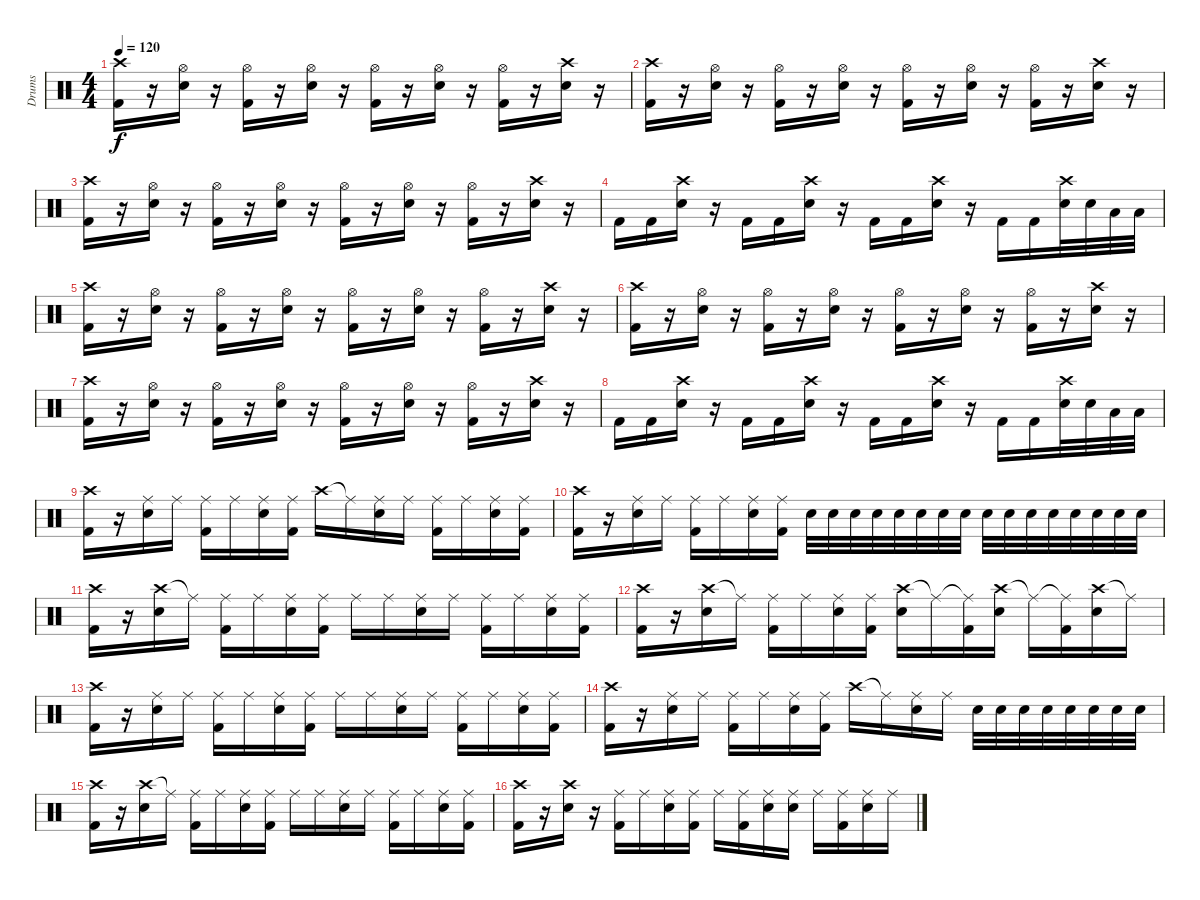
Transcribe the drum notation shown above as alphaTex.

\track ("Drums" "Drums") {instrument percussion}
\staff {score}
\articulation defaults
\ts (4 4)
\tempo 120
\clef neutral
\ks c
("Crash high (hit)" "Kick (hit) 2").16{dy f} r.16 ("Hi-Hat (open)" "Electric Snare (hit)").16 r.16 ("Hi-Hat (open)" "Kick (hit) 2").16 r.16 ("Hi-Hat (open)" "Electric Snare (hit)").16 r.16 ("Hi-Hat (open)" "Kick (hit) 2").16 r.16 ("Hi-Hat (open)" "Electric Snare (hit)").16 r.16 ("Hi-Hat (open)" "Kick (hit) 2").16 r.16 ("Crash high (hit)" "Electric Snare (hit)").16 r.16 |
("Crash high (hit)" "Kick (hit) 2").16 r.16 ("Hi-Hat (open)" "Electric Snare (hit)").16 r.16 ("Hi-Hat (open)" "Kick (hit) 2").16 r.16 ("Hi-Hat (open)" "Electric Snare (hit)").16 r.16 ("Hi-Hat (open)" "Kick (hit) 2").16 r.16 ("Hi-Hat (open)" "Electric Snare (hit)").16 r.16 ("Hi-Hat (open)" "Kick (hit) 2").16 r.16 ("Crash high (hit)" "Electric Snare (hit)").16 r.16 |
("Crash high (hit)" "Kick (hit) 2").16 r.16 ("Hi-Hat (open)" "Electric Snare (hit)").16 r.16 ("Hi-Hat (open)" "Kick (hit) 2").16 r.16 ("Hi-Hat (open)" "Electric Snare (hit)").16 r.16 ("Hi-Hat (open)" "Kick (hit) 2").16 r.16 ("Hi-Hat (open)" "Electric Snare (hit)").16 r.16 ("Hi-Hat (open)" "Kick (hit) 2").16 r.16 ("Crash high (hit)" "Electric Snare (hit)").16 r.16 |
"Kick (hit) 2".16 "Kick (hit) 2".16 ("Crash high (hit)" "Electric Snare (hit)").16 r.16 "Kick (hit) 2".16 "Kick (hit) 2".16 ("Crash high (hit)" "Electric Snare (hit)").16 r.16 "Kick (hit) 2".16 "Kick (hit) 2".16 ("Crash high (hit)" "Electric Snare (hit)").16 r.16 "Kick (hit) 2".16 "Kick (hit) 2".16 ("Crash high (hit)" "Electric Snare (hit)").32 "Electric Snare (hit)".32 "Low Tom (hit)".32 "Low Tom (hit)".32 |
("Crash high (hit)" "Kick (hit) 2").16 r.16 ("Hi-Hat (open)" "Electric Snare (hit)").16 r.16 ("Hi-Hat (open)" "Kick (hit) 2").16 r.16 ("Hi-Hat (open)" "Electric Snare (hit)").16 r.16 ("Hi-Hat (open)" "Kick (hit) 2").16 r.16 ("Hi-Hat (open)" "Electric Snare (hit)").16 r.16 ("Hi-Hat (open)" "Kick (hit) 2").16 r.16 ("Crash high (hit)" "Electric Snare (hit)").16 r.16 |
("Crash high (hit)" "Kick (hit) 2").16 r.16 ("Hi-Hat (open)" "Electric Snare (hit)").16 r.16 ("Hi-Hat (open)" "Kick (hit) 2").16 r.16 ("Hi-Hat (open)" "Electric Snare (hit)").16 r.16 ("Hi-Hat (open)" "Kick (hit) 2").16 r.16 ("Hi-Hat (open)" "Electric Snare (hit)").16 r.16 ("Hi-Hat (open)" "Kick (hit) 2").16 r.16 ("Crash high (hit)" "Electric Snare (hit)").16 r.16 |
("Crash high (hit)" "Kick (hit) 2").16 r.16 ("Hi-Hat (open)" "Electric Snare (hit)").16 r.16 ("Hi-Hat (open)" "Kick (hit) 2").16 r.16 ("Hi-Hat (open)" "Electric Snare (hit)").16 r.16 ("Hi-Hat (open)" "Kick (hit) 2").16 r.16 ("Hi-Hat (open)" "Electric Snare (hit)").16 r.16 ("Hi-Hat (open)" "Kick (hit) 2").16 r.16 ("Crash high (hit)" "Electric Snare (hit)").16 r.16 |
"Kick (hit) 2".16 "Kick (hit) 2".16 ("Crash high (hit)" "Electric Snare (hit)").16 r.16 "Kick (hit) 2".16 "Kick (hit) 2".16 ("Crash high (hit)" "Electric Snare (hit)").16 r.16 "Kick (hit) 2".16 "Kick (hit) 2".16 ("Crash high (hit)" "Electric Snare (hit)").16 r.16 "Kick (hit) 2".16 "Kick (hit) 2".16 ("Crash high (hit)" "Electric Snare (hit)").32 "Electric Snare (hit)".32 "Low Tom (hit)".32 "Low Tom (hit)".32 |
("Crash high (hit)" "Kick (hit) 2").16 r.16 ("Ride (middle)" "Electric Snare (hit)").16 "Ride (middle)".16 ("Ride (middle)" "Kick (hit) 2").16 "Ride (middle)".16 ("Ride (middle)" "Electric Snare (hit)").16 ("Ride (middle)" "Kick (hit) 2").16 "Crash high (hit)".16 "Ride (middle)"{t}.16 ("Ride (middle)" "Electric Snare (hit)").16 "Ride (middle)".16 ("Ride (middle)" "Kick (hit) 2").16 "Ride (middle)".16 ("Ride (middle)" "Electric Snare (hit)").16 ("Ride (middle)" "Kick (hit) 2").16 |
("Crash high (hit)" "Kick (hit) 2").16 r.16 ("Ride (middle)" "Electric Snare (hit)").16 "Ride (middle)".16 ("Ride (middle)" "Kick (hit) 2").16 "Ride (middle)".16 ("Ride (middle)" "Electric Snare (hit)").16 ("Ride (middle)" "Kick (hit) 2").16 "Electric Snare (hit)".32 "Electric Snare (hit)".32 "Electric Snare (hit)".32 "Electric Snare (hit)".32 "Electric Snare (hit)".32 "Electric Snare (hit)".32 "Electric Snare (hit)".32 "Electric Snare (hit)".32 "Electric Snare (hit)".32 "Electric Snare (hit)".32 "Electric Snare (hit)".32 "Electric Snare (hit)".32 "Electric Snare (hit)".32 "Electric Snare (hit)".32 "Electric Snare (hit)".32 "Electric Snare (hit)".32 |
("Crash high (hit)" "Kick (hit) 2").16 r.16 ("Crash high (hit)" "Electric Snare (hit)").16 "Ride (middle)"{t}.16 ("Ride (middle)" "Kick (hit) 2").16 "Ride (middle)".16 ("Ride (middle)" "Electric Snare (hit)").16 ("Ride (middle)" "Kick (hit) 2").16 "Ride (middle)".16 "Ride (middle)".16 ("Ride (middle)" "Electric Snare (hit)").16 "Ride (middle)".16 ("Ride (middle)" "Kick (hit) 2").16 "Ride (middle)".16 ("Ride (middle)" "Electric Snare (hit)").16 ("Ride (middle)" "Kick (hit) 2").16 |
("Crash high (hit)" "Kick (hit) 2").16 r.16 ("Crash high (hit)" "Electric Snare (hit)").16 "Ride (middle)"{t}.16 ("Ride (middle)" "Kick (hit) 2").16 "Ride (middle)".16 ("Ride (middle)" "Electric Snare (hit)").16 ("Ride (middle)" "Kick (hit) 2").16 ("Crash high (hit)" "Electric Snare (hit)").16 "Ride (middle)"{t}.16 ("Ride (middle)"{t} "Kick (hit) 2").16 ("Crash high (hit)" "Electric Snare (hit)").16 "Ride (middle)"{t}.16 ("Ride (middle)"{t} "Kick (hit) 2").16 ("Crash high (hit)" "Electric Snare (hit)").16 "Ride (middle)"{t}.16 |
("Crash high (hit)" "Kick (hit) 2").16 r.16 ("Ride (middle)" "Electric Snare (hit)").16 "Ride (middle)".16 ("Ride (middle)" "Kick (hit) 2").16 "Ride (middle)".16 ("Ride (middle)" "Electric Snare (hit)").16 ("Ride (middle)" "Kick (hit) 2").16 "Ride (middle)".16 "Ride (middle)".16 ("Ride (middle)" "Electric Snare (hit)").16 "Ride (middle)".16 ("Ride (middle)" "Kick (hit) 2").16 "Ride (middle)".16 ("Ride (middle)" "Electric Snare (hit)").16 ("Ride (middle)" "Kick (hit) 2").16 |
("Crash high (hit)" "Kick (hit) 2").16 r.16 ("Ride (middle)" "Electric Snare (hit)").16 "Ride (middle)".16 ("Ride (middle)" "Kick (hit) 2").16 "Ride (middle)".16 ("Ride (middle)" "Electric Snare (hit)").16 ("Ride (middle)" "Kick (hit) 2").16 "Crash high (hit)".16 "Ride (middle)"{t}.16 ("Ride (middle)" "Electric Snare (hit)").16 "Ride (middle)".16 "Electric Snare (hit)".32 "Electric Snare (hit)".32 "Electric Snare (hit)".32 "Electric Snare (hit)".32 "Electric Snare (hit)".32 "Electric Snare (hit)".32 "Electric Snare (hit)".32 "Electric Snare (hit)".32 |
("Crash high (hit)" "Kick (hit) 2").16 r.16 ("Crash high (hit)" "Electric Snare (hit)").16 "Ride (middle)"{t}.16 ("Ride (middle)" "Kick (hit) 2").16 "Ride (middle)".16 ("Ride (middle)" "Electric Snare (hit)").16 ("Ride (middle)" "Kick (hit) 2").16 "Ride (middle)".16 "Ride (middle)".16 ("Ride (middle)" "Electric Snare (hit)").16 "Ride (middle)".16 ("Ride (middle)" "Kick (hit) 2").16 "Ride (middle)".16 ("Ride (middle)" "Electric Snare (hit)").16 ("Ride (middle)" "Kick (hit) 2").16 |
("Crash high (hit)" "Kick (hit) 2").16 r.16 ("Crash high (hit)" "Electric Snare (hit)").16 r.16 ("Ride (middle)" "Kick (hit) 2").16 "Ride (middle)".16 ("Ride (middle)" "Electric Snare (hit)").16 ("Ride (middle)" "Kick (hit) 2").16 "Ride (middle)".16 ("Ride (middle)" "Kick (hit) 2").16 ("Ride (middle)" "Electric Snare (hit)").16 ("Ride (middle)" "Electric Snare (hit)").16 "Ride (middle)".16 ("Ride (middle)" "Kick (hit) 2").16 ("Ride (middle)" "Electric Snare (hit)").16 "Ride (middle)".16
